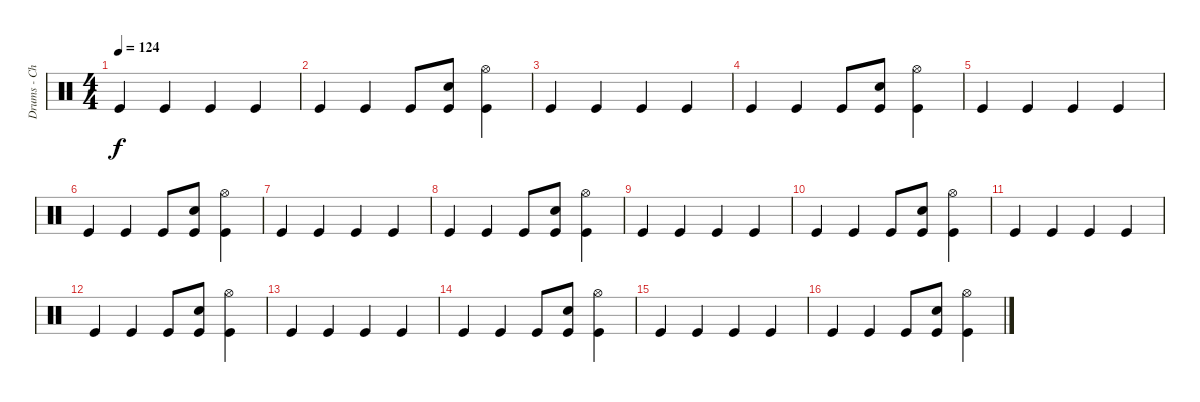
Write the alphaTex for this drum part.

\track ("Drums - Chris Frantz" "Drums - Ch") {instrument percussion}
\staff {score}
\articulation defaults
\ts (4 4)
\tempo 124
\clef neutral
\ks c "Kick (hit)".4{dy f} "Kick (hit)".4 "Kick (hit)".4 "Kick (hit)".4
|
"Kick (hit)".4 "Kick (hit)".4 "Kick (hit)".8 ("Kick (hit)" "Snare (hit) 2").8 ("Kick (hit)" "Hi-Hat (open)").4 |
"Kick (hit)".4 "Kick (hit)".4 "Kick (hit)".4 "Kick (hit)".4 |
"Kick (hit)".4 "Kick (hit)".4 "Kick (hit)".8 ("Kick (hit)" "Snare (hit) 2").8 ("Kick (hit)" "Hi-Hat (open)").4 |
"Kick (hit)".4 "Kick (hit)".4 "Kick (hit)".4 "Kick (hit)".4 |
"Kick (hit)".4 "Kick (hit)".4 "Kick (hit)".8 ("Kick (hit)" "Snare (hit) 2").8 ("Kick (hit)" "Hi-Hat (open)").4 |
"Kick (hit)".4 "Kick (hit)".4 "Kick (hit)".4 "Kick (hit)".4 |
"Kick (hit)".4 "Kick (hit)".4 "Kick (hit)".8 ("Kick (hit)" "Snare (hit) 2").8 ("Kick (hit)" "Hi-Hat (open)").4 |
"Kick (hit)".4 "Kick (hit)".4 "Kick (hit)".4 "Kick (hit)".4 |
"Kick (hit)".4 "Kick (hit)".4 "Kick (hit)".8 ("Kick (hit)" "Snare (hit) 2").8 ("Kick (hit)" "Hi-Hat (open)").4 |
"Kick (hit)".4 "Kick (hit)".4 "Kick (hit)".4 "Kick (hit)".4 |
"Kick (hit)".4 "Kick (hit)".4 "Kick (hit)".8 ("Kick (hit)" "Snare (hit) 2").8 ("Kick (hit)" "Hi-Hat (open)").4 |
"Kick (hit)".4 "Kick (hit)".4 "Kick (hit)".4 "Kick (hit)".4 |
"Kick (hit)".4 "Kick (hit)".4 "Kick (hit)".8 ("Kick (hit)" "Snare (hit) 2").8 ("Kick (hit)" "Hi-Hat (open)").4 |
"Kick (hit)".4 "Kick (hit)".4 "Kick (hit)".4 "Kick (hit)".4 |
"Kick (hit)".4 "Kick (hit)".4 "Kick (hit)".8 ("Kick (hit)" "Snare (hit) 2").8 ("Kick (hit)" "Hi-Hat (open)").4
